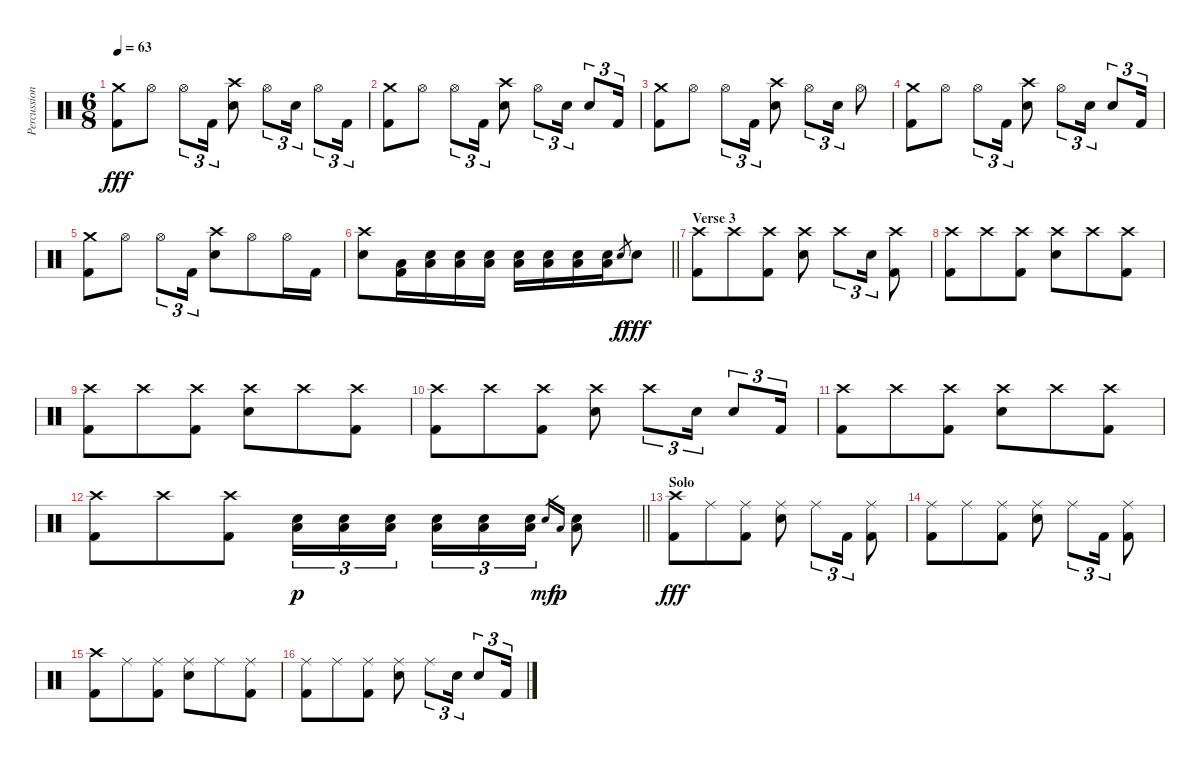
\track ("Percussion" "Percussion") {instrument percussion}
\staff {score}
\articulation defaults
\ts (6 8)
\tempo 63
\clef neutral
\ks c
("Crash medium (hit)" "Kick (hit) 2").8{dy fff} "Hi-Hat (open)".8 "Hi-Hat (open)".8{tu (3 2)} "Kick (hit) 2".16{tu (3 2)} ("Crash high (hit)" "Electric Snare (hit)").8 "Hi-Hat (open)".8{tu (3 2)} "Electric Snare (hit)".16{tu (3 2)} "Hi-Hat (open)".8{tu (3 2)} "Kick (hit) 2".16{tu (3 2)} |
("Crash medium (hit)" "Kick (hit) 2").8 "Hi-Hat (open)".8 "Hi-Hat (open)".8{tu (3 2)} "Kick (hit) 2".16{tu (3 2)} ("Crash high (hit)" "Electric Snare (hit)").8 "Hi-Hat (open)".8{tu (3 2)} "Electric Snare (hit)".16{tu (3 2)} "Electric Snare (hit)".8{tu (3 2)} "Kick (hit) 2".16{tu (3 2)} |
("Crash medium (hit)" "Kick (hit) 2").8 "Hi-Hat (open)".8 "Hi-Hat (open)".8{tu (3 2)} "Kick (hit) 2".16{tu (3 2)} ("Crash high (hit)" "Electric Snare (hit)").8 "Hi-Hat (open)".8{tu (3 2)} "Electric Snare (hit)".16{tu (3 2)} "Hi-Hat (open)".8 |
("Crash medium (hit)" "Kick (hit) 2").8 "Hi-Hat (open)".8 "Hi-Hat (open)".8{tu (3 2)} "Kick (hit) 2".16{tu (3 2)} ("Crash high (hit)" "Electric Snare (hit)").8 "Hi-Hat (open)".8{tu (3 2)} "Electric Snare (hit)".16{tu (3 2)} "Electric Snare (hit)".8{tu (3 2)} "Kick (hit) 2".16{tu (3 2)} |
("Crash medium (hit)" "Kick (hit) 2").8 "Hi-Hat (open)".8 "Hi-Hat (open)".8{tu (3 2)} "Kick (hit) 2".16{tu (3 2)} ("Crash high (hit)" "Electric Snare (hit)").8 "Hi-Hat (open)".8 "Hi-Hat (open)".16 "Kick (hit) 2".16 |
\barLineRight lightlight
("Crash high (hit)" "Electric Snare (hit)").8 ("Low Floor Tom (hit)" "Kick (hit) 2").16 ("Electric Snare (hit)" "Low Floor Tom (hit)").16 ("Electric Snare (hit)" "Low Floor Tom (hit)").16 ("Electric Snare (hit)" "Low Floor Tom (hit)").16 ("Electric Snare (hit)" "Low Floor Tom (hit)").16 ("Electric Snare (hit)" "Low Floor Tom (hit)").16 ("Electric Snare (hit)" "Low Floor Tom (hit)").16 ("Electric Snare (hit)" "Low Floor Tom (hit)").16 "Electric Snare (hit)".8{gr dy f} "Electric Snare (hit)".8{dy fff} |
\section ("" "Verse 3")
("Crash high (hit)" "Kick (hit) 2").8 "Crash high (hit)".8 ("Crash high (hit)" "Kick (hit) 2").8 ("Crash high (hit)" "Electric Snare (hit)").8 "Crash high (hit)".8{tu (3 2)} "Electric Snare (hit)".16{tu (3 2)} ("Crash high (hit)" "Kick (hit) 2").8 |
("Crash high (hit)" "Kick (hit) 2").8 "Crash high (hit)".8 ("Crash high (hit)" "Kick (hit) 2").8 ("Crash high (hit)" "Electric Snare (hit)").8 "Crash high (hit)".8 ("Crash high (hit)" "Kick (hit) 2").8 |
("Crash high (hit)" "Kick (hit) 2").8 "Crash high (hit)".8 ("Crash high (hit)" "Kick (hit) 2").8 ("Crash high (hit)" "Electric Snare (hit)").8 "Crash high (hit)".8 ("Crash high (hit)" "Kick (hit) 2").8 |
("Crash high (hit)" "Kick (hit) 2").8 "Crash high (hit)".8 ("Crash high (hit)" "Kick (hit) 2").8 ("Crash high (hit)" "Electric Snare (hit)").8 "Crash high (hit)".8{tu (3 2)} "Electric Snare (hit)".16{tu (3 2)} "Electric Snare (hit)".8{tu (3 2)} "Kick (hit) 2".16{tu (3 2)} |
("Crash high (hit)" "Kick (hit) 2").8 "Crash high (hit)".8 ("Crash high (hit)" "Kick (hit) 2").8 ("Crash high (hit)" "Electric Snare (hit)").8 "Crash high (hit)".8 ("Crash high (hit)" "Kick (hit) 2").8 |
\barLineRight lightlight
("Crash high (hit)" "Kick (hit) 2").8 "Crash high (hit)".8 ("Crash high (hit)" "Kick (hit) 2").8 ("Electric Snare (hit)" "Low Floor Tom (hit)").16{tu (3 2) dy p} ("Electric Snare (hit)" "Low Floor Tom (hit)").16{tu (3 2)} ("Electric Snare (hit)" "Low Floor Tom (hit)").16{tu (3 2) beam splitsecondary} ("Electric Snare (hit)" "Low Floor Tom (hit)").16{tu (3 2)} ("Electric Snare (hit)" "Low Floor Tom (hit)").16{tu (3 2)} ("Electric Snare (hit)" "Low Floor Tom (hit)").16{tu (3 2)} "Electric Snare (hit)".16{gr dy mf} "Low Floor Tom (hit)".16{gr dy p} ("Electric Snare (hit)" "Low Floor Tom (hit)").8 |
\section ("" "Solo")
("Crash high (hit)" "Kick (hit) 2").8{dy fff} "Ride (middle)".8 ("Ride (middle)" "Kick (hit) 2").8 ("Ride (middle)" "Electric Snare (hit)").8 "Ride (middle)".8{tu (3 2)} "Kick (hit) 2".16{tu (3 2)} ("Ride (middle)" "Kick (hit) 2").8 |
("Ride (middle)" "Kick (hit) 2").8 "Ride (middle)".8 ("Ride (middle)" "Kick (hit) 2").8 ("Ride (middle)" "Electric Snare (hit)").8 "Ride (middle)".8{tu (3 2)} "Kick (hit) 2".16{tu (3 2)} ("Ride (middle)" "Kick (hit) 2").8 |
("Crash high (hit)" "Kick (hit) 2").8 "Ride (middle)".8 ("Ride (middle)" "Kick (hit) 2").8 ("Ride (middle)" "Electric Snare (hit)").8 "Ride (middle)".8 ("Ride (middle)" "Kick (hit) 2").8 |
("Ride (middle)" "Kick (hit) 2").8 "Ride (middle)".8 ("Ride (middle)" "Kick (hit) 2").8 ("Ride (middle)" "Electric Snare (hit)").8 "Ride (middle)".8{tu (3 2)} "Electric Snare (hit)".16{tu (3 2)} "Electric Snare (hit)".8{tu (3 2)} "Kick (hit) 2".16{tu (3 2)}
